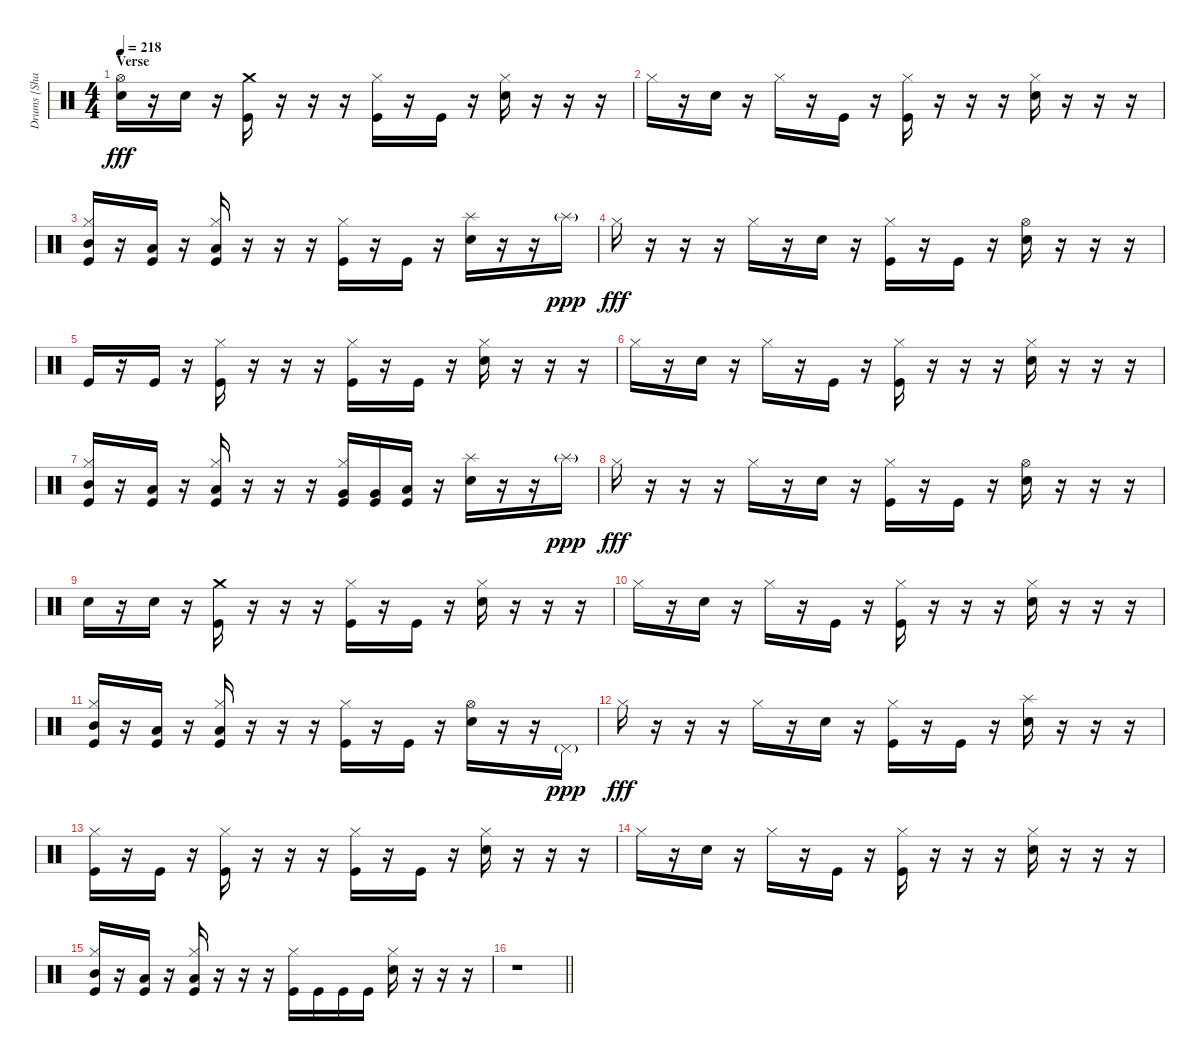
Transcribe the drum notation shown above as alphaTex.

\track ("Drums [Shannon Larkin]" "Drums [Sha") {instrument percussion}
\staff {score}
\articulation defaults
\ts (4 4)
\section ("" "Verse")
\tempo 218
\clef neutral
\ks c
("Hi-Hat (open)" "Electric Snare (hit)").16{dy fff} r.16 "Electric Snare (hit)".16 r.16 ("Crash medium (hit)" "Kick (hit)").16 r.16 r.16 r.16 ("Hi-Hat (closed)" "Kick (hit)").16 r.16 "Kick (hit)".16 r.16 ("Hi-Hat (closed)" "Electric Snare (hit)").16 r.16 r.16 r.16 |
"Hi-Hat (closed)".16 r.16 "Electric Snare (hit)".16 r.16 "Hi-Hat (closed)".16 r.16 "Kick (hit)".16 r.16 ("Hi-Hat (closed)" "Kick (hit)").16 r.16 r.16 r.16 ("Hi-Hat (closed)" "Electric Snare (hit)").16 r.16 r.16 r.16 |
("Hi-Hat (closed)" "Mid Tom (hit)" "Kick (hit)").16 r.16 ("Low Tom (hit)" "Kick (hit)").16 r.16 ("Hi-Hat (closed)" "Low Floor Tom (hit)" "Kick (hit)").16 r.16 r.16 r.16 ("Hi-Hat (closed)" "Kick (hit)").16 r.16 "Kick (hit)".16 r.16 ("Splash (hit)" "Electric Snare (hit)").16 r.16 r.16 "Splash (hit)"{g}.16{dy ppp} |
"Hi-Hat (closed)".16{dy fff} r.16 r.16 r.16 "Hi-Hat (closed)".16 r.16 "Electric Snare (hit)".16 r.16 ("Hi-Hat (closed)" "Kick (hit)").16 r.16 "Kick (hit)".16 r.16 ("Hi-Hat (open)" "Electric Snare (hit)").16 r.16 r.16 r.16 |
"Kick (hit)".16 r.16 "Kick (hit)".16 r.16 ("Hi-Hat (closed)" "Kick (hit)").16 r.16 r.16 r.16 ("Hi-Hat (closed)" "Kick (hit)").16 r.16 "Kick (hit)".16 r.16 ("Hi-Hat (closed)" "Electric Snare (hit)").16 r.16 r.16 r.16 |
"Hi-Hat (closed)".16 r.16 "Electric Snare (hit)".16 r.16 "Hi-Hat (closed)".16 r.16 "Kick (hit)".16 r.16 ("Hi-Hat (closed)" "Kick (hit)").16 r.16 r.16 r.16 ("Hi-Hat (closed)" "Electric Snare (hit)").16 r.16 r.16 r.16 |
("Hi-Hat (closed)" "Mid Tom (hit)" "Kick (hit)").16 r.16 ("Low Tom (hit)" "Kick (hit)").16 r.16 ("Hi-Hat (closed)" "Low Floor Tom (hit)" "Kick (hit)").16 r.16 r.16 r.16 ("Hi-Hat (closed)" "Very Low Tom (hit)" "Kick (hit)").16 ("Very Low Tom (hit)" "Kick (hit)").16 ("Low Floor Tom (hit)" "Kick (hit)").16 r.16 ("Splash (hit)" "Electric Snare (hit)").16 r.16 r.16 "Splash (hit)"{g}.16{dy ppp} |
"Hi-Hat (closed)".16{dy fff} r.16 r.16 r.16 "Hi-Hat (closed)".16 r.16 "Electric Snare (hit)".16 r.16 ("Hi-Hat (closed)" "Kick (hit)").16 r.16 "Kick (hit)".16 r.16 ("Hi-Hat (open)" "Electric Snare (hit)").16 r.16 r.16 r.16 |
"Electric Snare (hit)".16 r.16 "Electric Snare (hit)".16 r.16 ("Crash medium (hit)" "Kick (hit)").16 r.16 r.16 r.16 ("Hi-Hat (closed)" "Kick (hit)").16 r.16 "Kick (hit)".16 r.16 ("Hi-Hat (closed)" "Electric Snare (hit)").16 r.16 r.16 r.16 |
"Hi-Hat (closed)".16 r.16 "Electric Snare (hit)".16 r.16 "Hi-Hat (closed)".16 r.16 "Kick (hit)".16 r.16 ("Hi-Hat (closed)" "Kick (hit)").16 r.16 r.16 r.16 ("Hi-Hat (closed)" "Electric Snare (hit)").16 r.16 r.16 r.16 |
("Hi-Hat (closed)" "Mid Tom (hit)" "Kick (hit)").16 r.16 ("Low Tom (hit)" "Kick (hit)").16 r.16 ("Hi-Hat (closed)" "Low Floor Tom (hit)" "Kick (hit)").16 r.16 r.16 r.16 ("Hi-Hat (closed)" "Kick (hit)").16 r.16 "Kick (hit)".16 r.16 ("Hi-Hat (open)" "Electric Snare (hit)").16 r.16 r.16 "Pedal Hi-Hat (hit)"{g}.16{dy ppp} |
"Hi-Hat (closed)".16{dy fff} r.16 r.16 r.16 "Hi-Hat (closed)".16 r.16 "Electric Snare (hit)".16 r.16 ("Hi-Hat (closed)" "Kick (hit)").16 r.16 "Kick (hit)".16 r.16 ("Splash (hit)" "Electric Snare (hit)").16 r.16 r.16 r.16 |
("Hi-Hat (closed)" "Kick (hit)").16 r.16 "Kick (hit)".16 r.16 ("Hi-Hat (closed)" "Kick (hit)").16 r.16 r.16 r.16 ("Hi-Hat (closed)" "Kick (hit)").16 r.16 "Kick (hit)".16 r.16 ("Hi-Hat (closed)" "Electric Snare (hit)").16 r.16 r.16 r.16 |
"Hi-Hat (closed)".16 r.16 "Electric Snare (hit)".16 r.16 "Hi-Hat (closed)".16 r.16 "Kick (hit)".16 r.16 ("Hi-Hat (closed)" "Kick (hit)").16 r.16 r.16 r.16 ("Hi-Hat (closed)" "Electric Snare (hit)").16 r.16 r.16 r.16 |
("Hi-Hat (closed)" "Mid Tom (hit)" "Kick (hit)").16 r.16 ("Low Tom (hit)" "Kick (hit)").16 r.16 ("Hi-Hat (closed)" "Low Floor Tom (hit)" "Kick (hit)").16 r.16 r.16 r.16 ("Hi-Hat (closed)" "Kick (hit)").16 "Kick (hit)".16 "Kick (hit)".16 "Kick (hit)".16 ("Hi-Hat (closed)" "Electric Snare (hit)").16 r.16 r.16 r.16 |
\barLineRight lightlight
r.1
